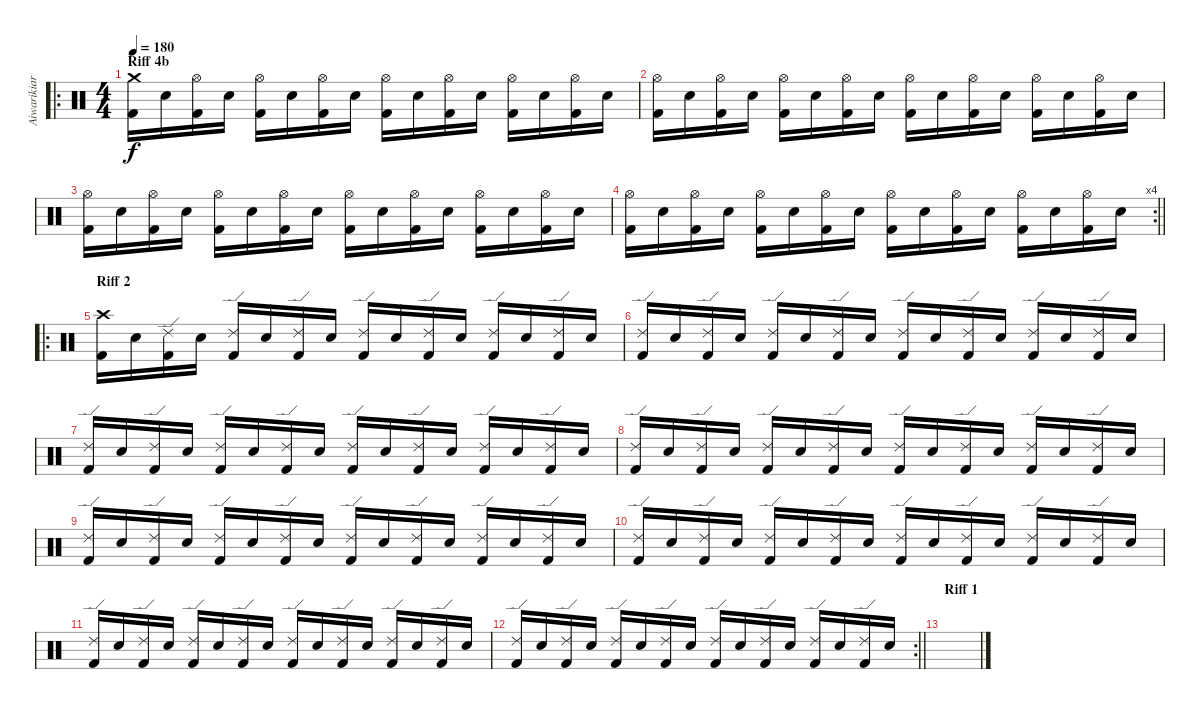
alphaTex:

\track ("Aiwarikiar" "Aiwarikiar") {instrument percussion}
\staff {score}
\articulation defaults
\ro
\ts (4 4)
\section ("" "Riff 4b")
\tempo 180
\clef neutral
\ks c
("Crash medium (hit)" "Kick (hit) 2").16{dy f} "Electric Snare (hit)".16 ("Hi-Hat (open)" "Kick (hit) 2").16 "Electric Snare (hit)".16 ("Hi-Hat (open)" "Kick (hit) 2").16 "Electric Snare (hit)".16 ("Hi-Hat (open)" "Kick (hit) 2").16 "Electric Snare (hit)".16 ("Hi-Hat (open)" "Kick (hit) 2").16 "Electric Snare (hit)".16 ("Hi-Hat (open)" "Kick (hit) 2").16 "Electric Snare (hit)".16 ("Hi-Hat (open)" "Kick (hit) 2").16 "Electric Snare (hit)".16 ("Hi-Hat (open)" "Kick (hit) 2").16 "Electric Snare (hit)".16 |
("Hi-Hat (open)" "Kick (hit) 2").16 "Electric Snare (hit)".16 ("Hi-Hat (open)" "Kick (hit) 2").16 "Electric Snare (hit)".16 ("Hi-Hat (open)" "Kick (hit) 2").16 "Electric Snare (hit)".16 ("Hi-Hat (open)" "Kick (hit) 2").16 "Electric Snare (hit)".16 ("Hi-Hat (open)" "Kick (hit) 2").16 "Electric Snare (hit)".16 ("Hi-Hat (open)" "Kick (hit) 2").16 "Electric Snare (hit)".16 ("Hi-Hat (open)" "Kick (hit) 2").16 "Electric Snare (hit)".16 ("Hi-Hat (open)" "Kick (hit) 2").16 "Electric Snare (hit)".16 |
("Hi-Hat (open)" "Kick (hit) 2").16 "Electric Snare (hit)".16 ("Hi-Hat (open)" "Kick (hit) 2").16 "Electric Snare (hit)".16 ("Hi-Hat (open)" "Kick (hit) 2").16 "Electric Snare (hit)".16 ("Hi-Hat (open)" "Kick (hit) 2").16 "Electric Snare (hit)".16 ("Hi-Hat (open)" "Kick (hit) 2").16 "Electric Snare (hit)".16 ("Hi-Hat (open)" "Kick (hit) 2").16 "Electric Snare (hit)".16 ("Hi-Hat (open)" "Kick (hit) 2").16 "Electric Snare (hit)".16 ("Hi-Hat (open)" "Kick (hit) 2").16 "Electric Snare (hit)".16 |
\rc 4
\barLineRight lightlight
("Hi-Hat (open)" "Kick (hit) 2").16 "Electric Snare (hit)".16 ("Hi-Hat (open)" "Kick (hit) 2").16 "Electric Snare (hit)".16 ("Hi-Hat (open)" "Kick (hit) 2").16 "Electric Snare (hit)".16 ("Hi-Hat (open)" "Kick (hit) 2").16 "Electric Snare (hit)".16 ("Hi-Hat (open)" "Kick (hit) 2").16 "Electric Snare (hit)".16 ("Hi-Hat (open)" "Kick (hit) 2").16 "Electric Snare (hit)".16 ("Hi-Hat (open)" "Kick (hit) 2").16 "Electric Snare (hit)".16 ("Hi-Hat (open)" "Kick (hit) 2").16 "Electric Snare (hit)".16 |
\ro
\section ("" "Riff 2")
("Crash high (hit)" "Kick (hit) 2").16 "Electric Snare (hit)".16 ("Ride (edge) 2" "Kick (hit) 2").16 "Electric Snare (hit)".16 ("Ride (edge) 2" "Kick (hit) 2").16 "Electric Snare (hit)".16 ("Ride (edge) 2" "Kick (hit) 2").16 "Electric Snare (hit)".16 ("Ride (edge) 2" "Kick (hit) 2").16 "Electric Snare (hit)".16 ("Ride (edge) 2" "Kick (hit) 2").16 "Electric Snare (hit)".16 ("Ride (edge) 2" "Kick (hit) 2").16 "Electric Snare (hit)".16 ("Ride (edge) 2" "Kick (hit) 2").16 "Electric Snare (hit)".16 |
("Ride (edge) 2" "Kick (hit) 2").16 "Electric Snare (hit)".16 ("Ride (edge) 2" "Kick (hit) 2").16 "Electric Snare (hit)".16 ("Ride (edge) 2" "Kick (hit) 2").16 "Electric Snare (hit)".16 ("Ride (edge) 2" "Kick (hit) 2").16 "Electric Snare (hit)".16 ("Ride (edge) 2" "Kick (hit) 2").16 "Electric Snare (hit)".16 ("Ride (edge) 2" "Kick (hit) 2").16 "Electric Snare (hit)".16 ("Ride (edge) 2" "Kick (hit) 2").16 "Electric Snare (hit)".16 ("Ride (edge) 2" "Kick (hit) 2").16 "Electric Snare (hit)".16 |
("Ride (edge) 2" "Kick (hit) 2").16 "Electric Snare (hit)".16 ("Ride (edge) 2" "Kick (hit) 2").16 "Electric Snare (hit)".16 ("Ride (edge) 2" "Kick (hit) 2").16 "Electric Snare (hit)".16 ("Ride (edge) 2" "Kick (hit) 2").16 "Electric Snare (hit)".16 ("Ride (edge) 2" "Kick (hit) 2").16 "Electric Snare (hit)".16 ("Ride (edge) 2" "Kick (hit) 2").16 "Electric Snare (hit)".16 ("Ride (edge) 2" "Kick (hit) 2").16 "Electric Snare (hit)".16 ("Ride (edge) 2" "Kick (hit) 2").16 "Electric Snare (hit)".16 |
("Ride (edge) 2" "Kick (hit) 2").16 "Electric Snare (hit)".16 ("Ride (edge) 2" "Kick (hit) 2").16 "Electric Snare (hit)".16 ("Ride (edge) 2" "Kick (hit) 2").16 "Electric Snare (hit)".16 ("Ride (edge) 2" "Kick (hit) 2").16 "Electric Snare (hit)".16 ("Ride (edge) 2" "Kick (hit) 2").16 "Electric Snare (hit)".16 ("Ride (edge) 2" "Kick (hit) 2").16 "Electric Snare (hit)".16 ("Ride (edge) 2" "Kick (hit) 2").16 "Electric Snare (hit)".16 ("Ride (edge) 2" "Kick (hit) 2").16 "Electric Snare (hit)".16 |
("Ride (edge) 2" "Kick (hit) 2").16 "Electric Snare (hit)".16 ("Ride (edge) 2" "Kick (hit) 2").16 "Electric Snare (hit)".16 ("Ride (edge) 2" "Kick (hit) 2").16 "Electric Snare (hit)".16 ("Ride (edge) 2" "Kick (hit) 2").16 "Electric Snare (hit)".16 ("Ride (edge) 2" "Kick (hit) 2").16 "Electric Snare (hit)".16 ("Ride (edge) 2" "Kick (hit) 2").16 "Electric Snare (hit)".16 ("Ride (edge) 2" "Kick (hit) 2").16 "Electric Snare (hit)".16 ("Ride (edge) 2" "Kick (hit) 2").16 "Electric Snare (hit)".16 |
("Ride (edge) 2" "Kick (hit) 2").16 "Electric Snare (hit)".16 ("Ride (edge) 2" "Kick (hit) 2").16 "Electric Snare (hit)".16 ("Ride (edge) 2" "Kick (hit) 2").16 "Electric Snare (hit)".16 ("Ride (edge) 2" "Kick (hit) 2").16 "Electric Snare (hit)".16 ("Ride (edge) 2" "Kick (hit) 2").16 "Electric Snare (hit)".16 ("Ride (edge) 2" "Kick (hit) 2").16 "Electric Snare (hit)".16 ("Ride (edge) 2" "Kick (hit) 2").16 "Electric Snare (hit)".16 ("Ride (edge) 2" "Kick (hit) 2").16 "Electric Snare (hit)".16 |
("Ride (edge) 2" "Kick (hit) 2").16 "Electric Snare (hit)".16 ("Ride (edge) 2" "Kick (hit) 2").16 "Electric Snare (hit)".16 ("Ride (edge) 2" "Kick (hit) 2").16 "Electric Snare (hit)".16 ("Ride (edge) 2" "Kick (hit) 2").16 "Electric Snare (hit)".16 ("Ride (edge) 2" "Kick (hit) 2").16 "Electric Snare (hit)".16 ("Ride (edge) 2" "Kick (hit) 2").16 "Electric Snare (hit)".16 ("Ride (edge) 2" "Kick (hit) 2").16 "Electric Snare (hit)".16 ("Ride (edge) 2" "Kick (hit) 2").16 "Electric Snare (hit)".16 |
\rc 2
\barLineRight lightlight
("Ride (edge) 2" "Kick (hit) 2").16 "Electric Snare (hit)".16 ("Ride (edge) 2" "Kick (hit) 2").16 "Electric Snare (hit)".16 ("Ride (edge) 2" "Kick (hit) 2").16 "Electric Snare (hit)".16 ("Ride (edge) 2" "Kick (hit) 2").16 "Electric Snare (hit)".16 ("Ride (edge) 2" "Kick (hit) 2").16 "Electric Snare (hit)".16 ("Ride (edge) 2" "Kick (hit) 2").16 "Electric Snare (hit)".16 ("Ride (edge) 2" "Kick (hit) 2").16 "Electric Snare (hit)".16 ("Ride (edge) 2" "Kick (hit) 2").16 "Electric Snare (hit)".16 |
\section ("" "Riff 1")
